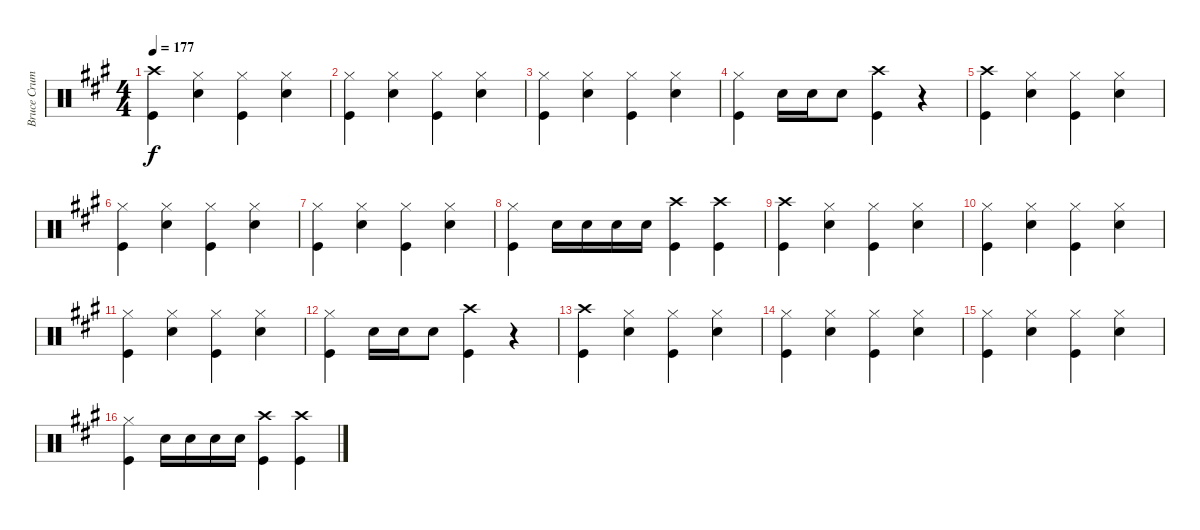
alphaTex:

\track ("Bruce Crump Drums" "Bruce Crum") {instrument percussion}
\staff {score}
\articulation defaults
\ts (4 4)
\tempo 177
\clef neutral
\ks a
("Crash high (hit)" "Kick (hit)").4{dy f} ("Hi-Hat (closed)" "Snare (hit) 2").4 ("Hi-Hat (closed)" "Kick (hit)").4 ("Hi-Hat (closed)" "Snare (hit) 2").4 |
("Hi-Hat (closed)" "Kick (hit)").4 ("Hi-Hat (closed)" "Snare (hit) 2").4 ("Hi-Hat (closed)" "Kick (hit)").4 ("Hi-Hat (closed)" "Snare (hit) 2").4 |
("Hi-Hat (closed)" "Kick (hit)").4 ("Hi-Hat (closed)" "Snare (hit) 2").4 ("Hi-Hat (closed)" "Kick (hit)").4 ("Hi-Hat (closed)" "Snare (hit) 2").4 |
("Hi-Hat (closed)" "Kick (hit)").4 "Snare (hit) 2".16 "Snare (hit) 2".16 "Snare (hit) 2".8 ("Crash high (hit)" "Kick (hit)").4 r.4 |
("Crash high (hit)" "Kick (hit)").4 ("Hi-Hat (closed)" "Snare (hit) 2").4 ("Hi-Hat (closed)" "Kick (hit)").4 ("Hi-Hat (closed)" "Snare (hit) 2").4 |
("Hi-Hat (closed)" "Kick (hit)").4 ("Hi-Hat (closed)" "Snare (hit) 2").4 ("Hi-Hat (closed)" "Kick (hit)").4 ("Hi-Hat (closed)" "Snare (hit) 2").4 |
("Hi-Hat (closed)" "Kick (hit)").4 ("Hi-Hat (closed)" "Snare (hit) 2").4 ("Hi-Hat (closed)" "Kick (hit)").4 ("Hi-Hat (closed)" "Snare (hit) 2").4 |
("Hi-Hat (closed)" "Kick (hit)").4 "Snare (hit) 2".16 "Snare (hit) 2".16 "Snare (hit) 2".16 "Snare (hit) 2".16 ("Crash high (hit)" "Kick (hit)").4 ("Crash high (hit)" "Kick (hit)").4 |
("Crash high (hit)" "Kick (hit)").4 ("Hi-Hat (closed)" "Snare (hit) 2").4 ("Hi-Hat (closed)" "Kick (hit)").4 ("Hi-Hat (closed)" "Snare (hit) 2").4 |
("Hi-Hat (closed)" "Kick (hit)").4 ("Hi-Hat (closed)" "Snare (hit) 2").4 ("Hi-Hat (closed)" "Kick (hit)").4 ("Hi-Hat (closed)" "Snare (hit) 2").4 |
("Hi-Hat (closed)" "Kick (hit)").4 ("Hi-Hat (closed)" "Snare (hit) 2").4 ("Hi-Hat (closed)" "Kick (hit)").4 ("Hi-Hat (closed)" "Snare (hit) 2").4 |
("Hi-Hat (closed)" "Kick (hit)").4 "Snare (hit) 2".16 "Snare (hit) 2".16 "Snare (hit) 2".8 ("Crash high (hit)" "Kick (hit)").4 r.4 |
("Crash high (hit)" "Kick (hit)").4 ("Hi-Hat (closed)" "Snare (hit) 2").4 ("Hi-Hat (closed)" "Kick (hit)").4 ("Hi-Hat (closed)" "Snare (hit) 2").4 |
("Hi-Hat (closed)" "Kick (hit)").4 ("Hi-Hat (closed)" "Snare (hit) 2").4 ("Hi-Hat (closed)" "Kick (hit)").4 ("Hi-Hat (closed)" "Snare (hit) 2").4 |
("Hi-Hat (closed)" "Kick (hit)").4 ("Hi-Hat (closed)" "Snare (hit) 2").4 ("Hi-Hat (closed)" "Kick (hit)").4 ("Hi-Hat (closed)" "Snare (hit) 2").4 |
("Hi-Hat (closed)" "Kick (hit)").4 "Snare (hit) 2".16 "Snare (hit) 2".16 "Snare (hit) 2".16 "Snare (hit) 2".16 ("Crash high (hit)" "Kick (hit)").4 ("Crash high (hit)" "Kick (hit)").4
